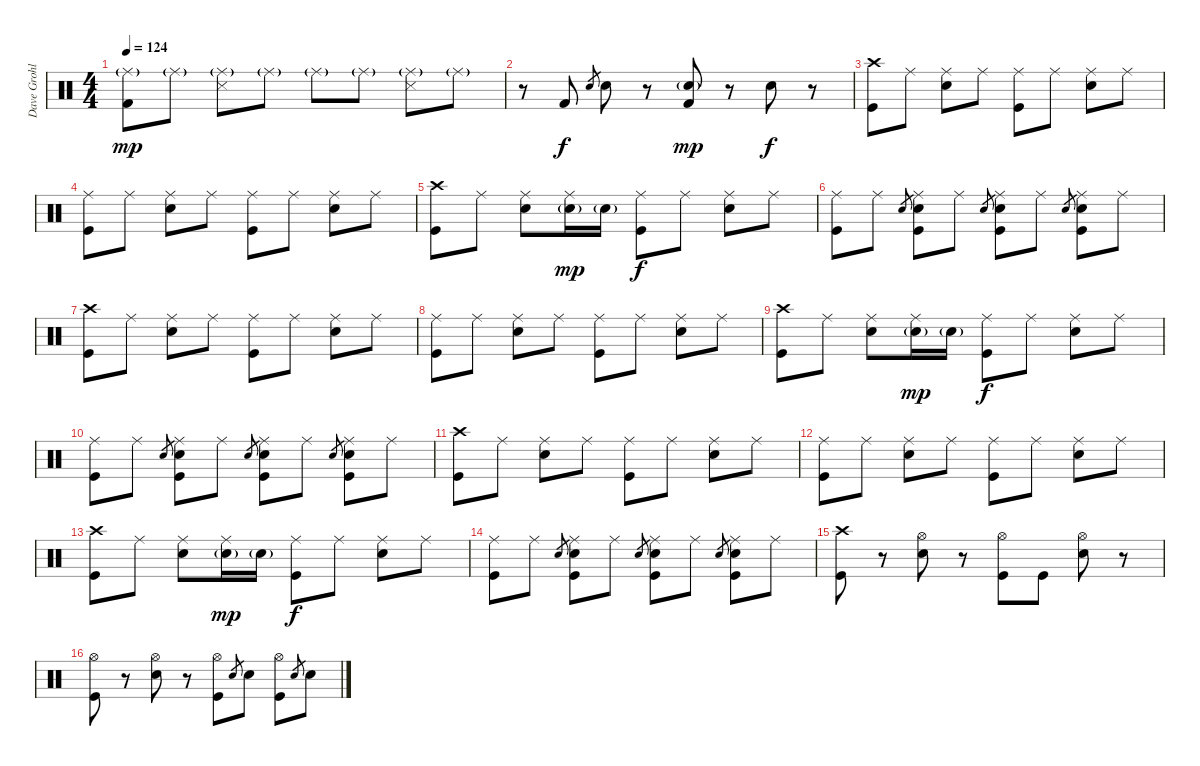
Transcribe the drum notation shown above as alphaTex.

\track ("Dave Grohl" "Dave Grohl") {instrument percussion}
\staff {score}
\articulation defaults
\ts (4 4)
\tempo 124
\clef neutral
\ks c
("Ride (middle)"{g} "Kick (hit) 2").8{dy mp} "Ride (middle)"{g}.8 ("Ride (middle)"{g} "Snare (side stick) 3").8 "Ride (middle)"{g}.8 "Ride (middle)"{g}.8 "Ride (middle)"{g}.8 ("Ride (middle)"{g} "Snare (side stick) 3").8 "Ride (middle)"{g}.8 |
r.8 "Kick (hit) 2".8{dy f} "Electric Snare (hit)".8{gr} "Electric Snare (hit)".8 r.8 ("Snare (hit) 2"{g} "Kick (hit) 2").8{dy mp} r.8 "Electric Snare (hit)".8{dy f} r.8 |
("Crash high (hit)" "Kick (hit)").8 "Ride (middle)".8 ("Ride (middle)" "Snare (hit) 2").8 "Ride (middle)".8 ("Ride (middle)" "Kick (hit)").8 "Ride (middle)".8 ("Ride (middle)" "Snare (hit) 2").8 "Ride (middle)".8 |
("Ride (middle)" "Kick (hit)").8 "Ride (middle)".8 ("Ride (middle)" "Snare (hit) 2").8 "Ride (middle)".8 ("Ride (middle)" "Kick (hit)").8 "Ride (middle)".8 ("Ride (middle)" "Snare (hit) 2").8 "Ride (middle)".8 |
("Crash high (hit)" "Kick (hit)").8 "Ride (middle)".8 ("Ride (middle)" "Snare (hit) 2").8 ("Ride (middle)" "Snare (hit) 2"{g}).16{dy mp} "Snare (hit) 2"{g}.16 ("Ride (middle)" "Kick (hit)").8{dy f} "Ride (middle)".8 ("Ride (middle)" "Snare (hit) 2").8 "Ride (middle)".8 |
("Ride (middle)" "Kick (hit)").8 "Ride (middle)".8 "Snare (hit) 2".8{gr} ("Ride (middle)" "Snare (hit) 2" "Kick (hit)").8 "Ride (middle)".8 "Snare (hit) 2".8{gr} ("Ride (middle)" "Snare (hit) 2" "Kick (hit)").8 "Ride (middle)".8 "Snare (hit) 2".8{gr} ("Ride (middle)" "Snare (hit) 2" "Kick (hit)").8 "Ride (middle)".8 |
("Crash high (hit)" "Kick (hit)").8 "Ride (middle)".8 ("Ride (middle)" "Snare (hit) 2").8 "Ride (middle)".8 ("Ride (middle)" "Kick (hit)").8 "Ride (middle)".8 ("Ride (middle)" "Snare (hit) 2").8 "Ride (middle)".8 |
("Ride (middle)" "Kick (hit)").8 "Ride (middle)".8 ("Ride (middle)" "Snare (hit) 2").8 "Ride (middle)".8 ("Ride (middle)" "Kick (hit)").8 "Ride (middle)".8 ("Ride (middle)" "Snare (hit) 2").8 "Ride (middle)".8 |
("Crash high (hit)" "Kick (hit)").8 "Ride (middle)".8 ("Ride (middle)" "Snare (hit) 2").8 ("Ride (middle)" "Snare (hit) 2"{g}).16{dy mp} "Snare (hit) 2"{g}.16 ("Ride (middle)" "Kick (hit)").8{dy f} "Ride (middle)".8 ("Ride (middle)" "Snare (hit) 2").8 "Ride (middle)".8 |
("Ride (middle)" "Kick (hit)").8 "Ride (middle)".8 "Snare (hit) 2".8{gr} ("Ride (middle)" "Snare (hit) 2" "Kick (hit)").8 "Ride (middle)".8 "Snare (hit) 2".8{gr} ("Ride (middle)" "Snare (hit) 2" "Kick (hit)").8 "Ride (middle)".8 "Snare (hit) 2".8{gr} ("Ride (middle)" "Snare (hit) 2" "Kick (hit)").8 "Ride (middle)".8 |
("Crash high (hit)" "Kick (hit)").8 "Ride (middle)".8 ("Ride (middle)" "Snare (hit) 2").8 "Ride (middle)".8 ("Ride (middle)" "Kick (hit)").8 "Ride (middle)".8 ("Ride (middle)" "Snare (hit) 2").8 "Ride (middle)".8 |
("Ride (middle)" "Kick (hit)").8 "Ride (middle)".8 ("Ride (middle)" "Snare (hit) 2").8 "Ride (middle)".8 ("Ride (middle)" "Kick (hit)").8 "Ride (middle)".8 ("Ride (middle)" "Snare (hit) 2").8 "Ride (middle)".8 |
("Crash high (hit)" "Kick (hit)").8 "Ride (middle)".8 ("Ride (middle)" "Snare (hit) 2").8 ("Ride (middle)" "Snare (hit) 2"{g}).16{dy mp} "Snare (hit) 2"{g}.16 ("Ride (middle)" "Kick (hit)").8{dy f} "Ride (middle)".8 ("Ride (middle)" "Snare (hit) 2").8 "Ride (middle)".8 |
("Ride (middle)" "Kick (hit)").8 "Ride (middle)".8 "Snare (hit) 2".8{gr} ("Ride (middle)" "Snare (hit) 2" "Kick (hit)").8 "Ride (middle)".8 "Snare (hit) 2".8{gr} ("Ride (middle)" "Snare (hit) 2" "Kick (hit)").8 "Ride (middle)".8 "Snare (hit) 2".8{gr} ("Ride (middle)" "Snare (hit) 2" "Kick (hit)").8 "Ride (middle)".8 |
("Crash high (hit)" "Kick (hit)").8 r.8 ("Hi-Hat (open)" "Snare (hit) 2").8 r.8 ("Hi-Hat (open)" "Kick (hit)").8 "Kick (hit)".8 ("Hi-Hat (open)" "Snare (hit) 2").8 r.8 |
("Hi-Hat (open)" "Kick (hit)").8 r.8 ("Hi-Hat (open)" "Snare (hit) 2").8 r.8 ("Hi-Hat (open)" "Kick (hit)").8 "Snare (hit) 2".8{gr} "Snare (hit) 2".8 ("Hi-Hat (open)" "Kick (hit)").8 "Snare (hit) 2".8{gr} "Snare (hit) 2".8
